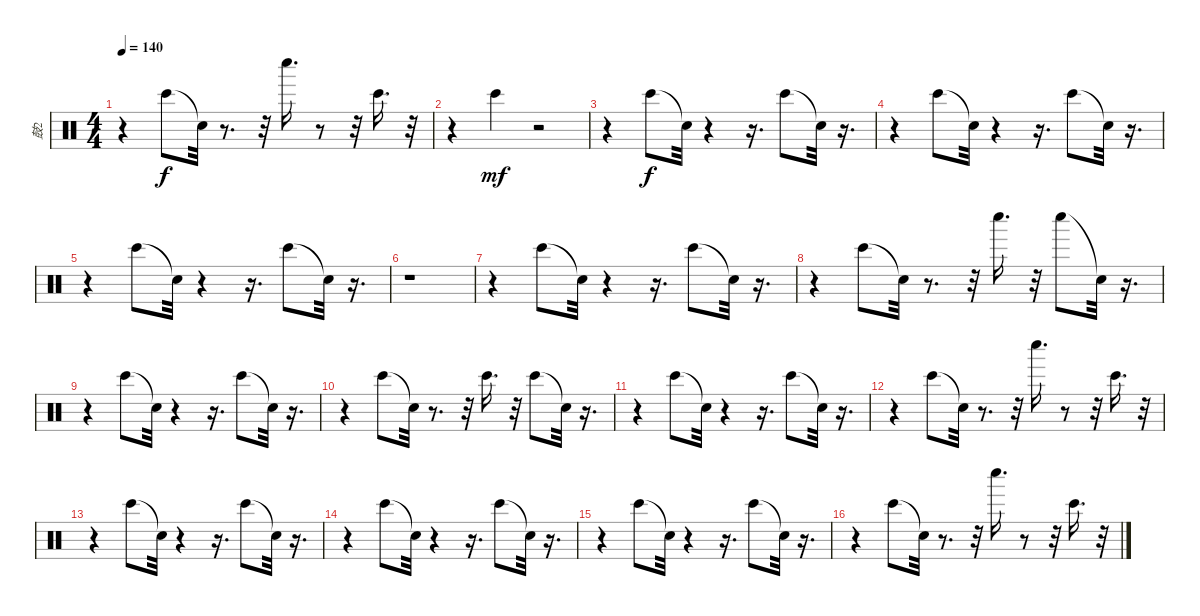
\track ("鼓2" "鼓2") {instrument percussion}
\staff {score}
\articulation defaults
\ts (4 4)
\tempo 140
\clef neutral
\ks c
r.4{dy f} "Bongo High (hit)".8 "Snare (hit)"{t}.32 r.8{d} r.32 "Whistle low (hit)".16{d} r.8 r.32 "Bongo High (hit)".16{d} r.32 |
r.4 "Bongo High (hit)".4{dy mf} r.2 |
r.4 "Bongo High (hit)".8{dy f} "Snare (hit)"{t}.32 r.4 r.16{d} "Bongo High (hit)".8 "Snare (hit)"{t}.32 r.16{d} |
r.4 "Bongo High (hit)".8 "Snare (hit)"{t}.32 r.4 r.16{d} "Bongo High (hit)".8 "Snare (hit)"{t}.32 r.16{d} |
r.4 "Bongo High (hit)".8 "Snare (hit)"{t}.32 r.4 r.16{d} "Bongo High (hit)".8 "Snare (hit)"{t}.32 r.16{d} |
r.1 |
r.4 "Bongo High (hit)".8 "Snare (hit)"{t}.32 r.4 r.16{d} "Bongo High (hit)".8 "Snare (hit)"{t}.32 r.16{d} |
r.4 "Bongo High (hit)".8 "Snare (hit)"{t}.32 r.8{d} r.32 "Whistle low (hit)".16{d} r.32 "Whistle low (hit)".8 "Snare (hit)"{t}.32 r.16{d} |
r.4 "Bongo High (hit)".8 "Snare (hit)"{t}.32 r.4 r.16{d} "Bongo High (hit)".8 "Snare (hit)"{t}.32 r.16{d} |
r.4 "Bongo High (hit)".8 "Snare (hit)"{t}.32 r.8{d} r.32 "Bongo High (hit)".16{d} r.32 "Bongo High (hit)".8 "Snare (hit)"{t}.32 r.16{d} |
r.4 "Bongo High (hit)".8 "Snare (hit)"{t}.32 r.4 r.16{d} "Bongo High (hit)".8 "Snare (hit)"{t}.32 r.16{d} |
r.4 "Bongo High (hit)".8 "Snare (hit)"{t}.32 r.8{d} r.32 "Whistle low (hit)".16{d} r.8 r.32 "Bongo High (hit)".16{d} r.32 |
r.4 "Bongo High (hit)".8 "Snare (hit)"{t}.32 r.4 r.16{d} "Bongo High (hit)".8 "Snare (hit)"{t}.32 r.16{d} |
r.4 "Bongo High (hit)".8 "Snare (hit)"{t}.32 r.4 r.16{d} "Bongo High (hit)".8 "Snare (hit)"{t}.32 r.16{d} |
r.4 "Bongo High (hit)".8 "Snare (hit)"{t}.32 r.4 r.16{d} "Bongo High (hit)".8 "Snare (hit)"{t}.32 r.16{d} |
r.4 "Bongo High (hit)".8 "Snare (hit)"{t}.32 r.8{d} r.32 "Whistle low (hit)".16{d} r.8 r.32 "Bongo High (hit)".16{d} r.32
